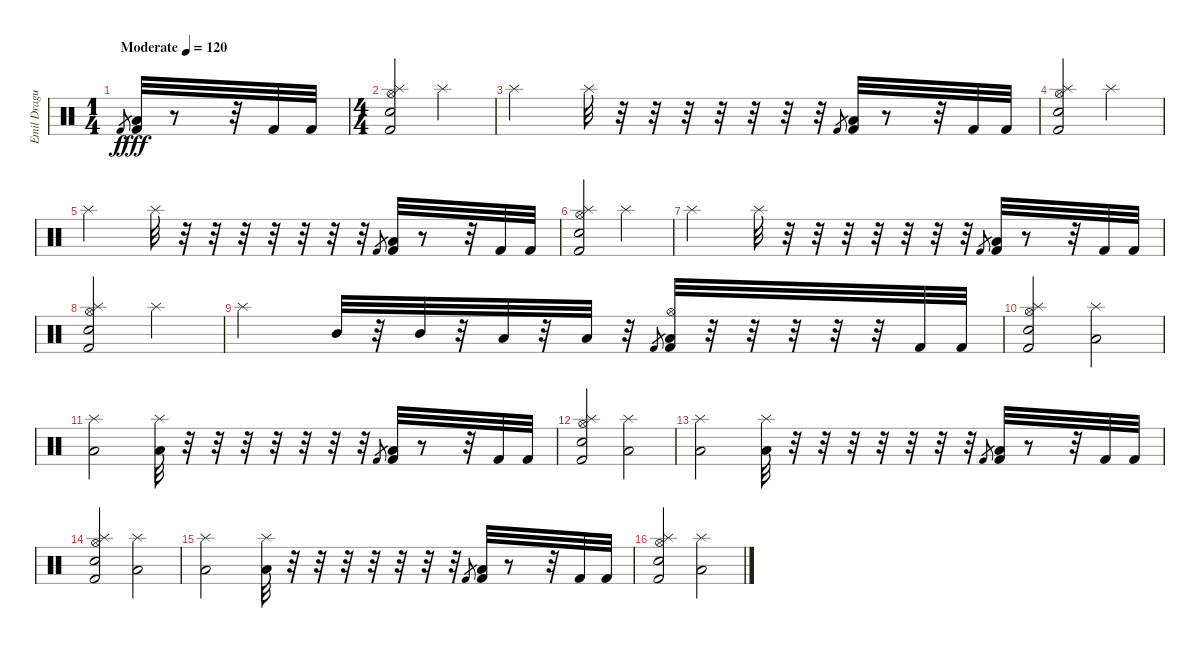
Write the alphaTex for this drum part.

\track ("Emil Dragutinovic" "Emil Dragu") {instrument percussion}
\staff {score}
\articulation defaults
\ts (1 4)
\tempo (120 "Moderate")
\clef neutral
\ks c "Kick (hit) 2".8{gr dy f}
("Low Tom (hit)" "Kick (hit) 2").32{dy fff} r.8 r.32 "Kick (hit) 2".32 "Kick (hit) 2".32 |
\ts (4 4)
("Splash (hit)" "Hi-Hat (open)" "Electric Snare (hit)" "Kick (hit) 2").2 "Splash (hit)".2 |
"Splash (hit)".2 "Splash (hit)".32 r.32 r.32 r.32 r.32 r.32 r.32 r.32 "Kick (hit) 2".8{gr} ("Low Tom (hit)" "Kick (hit) 2").32 r.8 r.32 "Kick (hit) 2".32 "Kick (hit) 2".32 |
("Splash (hit)" "Hi-Hat (open)" "Electric Snare (hit)" "Kick (hit) 2").2 "Splash (hit)".2 |
"Splash (hit)".2 "Splash (hit)".32 r.32 r.32 r.32 r.32 r.32 r.32 r.32 "Kick (hit) 2".8{gr} ("Low Tom (hit)" "Kick (hit) 2").32 r.8 r.32 "Kick (hit) 2".32 "Kick (hit) 2".32 |
("Splash (hit)" "Hi-Hat (open)" "Electric Snare (hit)" "Kick (hit) 2").2 "Splash (hit)".2 |
"Splash (hit)".2 "Splash (hit)".32 r.32 r.32 r.32 r.32 r.32 r.32 r.32 "Kick (hit) 2".8{gr} ("Low Tom (hit)" "Kick (hit) 2").32 r.8 r.32 "Kick (hit) 2".32 "Kick (hit) 2".32 |
("Splash (hit)" "Hi-Hat (open)" "Electric Snare (hit)" "Kick (hit) 2").2 "Splash (hit)".2 |
"Splash (hit)".2 "Mid Tom (hit)".32 r.32 "Mid Tom (hit)".32 r.32 "Low Tom (hit)".32 r.32 "Low Tom (hit)".32 r.32 "Kick (hit) 2".8{gr} ("Hi-Hat (open)" "Low Floor Tom (hit)" "Kick (hit) 2").32 r.32 r.32 r.32 r.32 r.32 "Kick (hit) 2".32 "Kick (hit) 2".32 |
("Splash (hit)" "Hi-Hat (open)" "Electric Snare (hit)" "Kick (hit) 2").2 ("Splash (hit)" "Low Floor Tom (hit)").2 |
("Splash (hit)" "Low Floor Tom (hit)").2 ("Splash (hit)" "Low Floor Tom (hit)").32 r.32 r.32 r.32 r.32 r.32 r.32 r.32 "Kick (hit) 2".8{gr} ("Low Tom (hit)" "Kick (hit) 2").32 r.8 r.32 "Kick (hit) 2".32 "Kick (hit) 2".32 |
("Splash (hit)" "Hi-Hat (open)" "Electric Snare (hit)" "Kick (hit) 2").2 ("Splash (hit)" "Low Floor Tom (hit)").2 |
("Splash (hit)" "Low Floor Tom (hit)").2 ("Splash (hit)" "Low Floor Tom (hit)").32 r.32 r.32 r.32 r.32 r.32 r.32 r.32 "Kick (hit) 2".8{gr} ("Low Tom (hit)" "Kick (hit) 2").32 r.8 r.32 "Kick (hit) 2".32 "Kick (hit) 2".32 |
("Splash (hit)" "Hi-Hat (open)" "Electric Snare (hit)" "Kick (hit) 2").2 ("Splash (hit)" "Low Floor Tom (hit)").2 |
("Splash (hit)" "Low Floor Tom (hit)").2 ("Splash (hit)" "Low Floor Tom (hit)").32 r.32 r.32 r.32 r.32 r.32 r.32 r.32 "Kick (hit) 2".8{gr} ("Low Tom (hit)" "Kick (hit) 2").32 r.8 r.32 "Kick (hit) 2".32 "Kick (hit) 2".32 |
("Splash (hit)" "Hi-Hat (open)" "Electric Snare (hit)" "Kick (hit) 2").2 ("Splash (hit)" "Low Floor Tom (hit)").2
